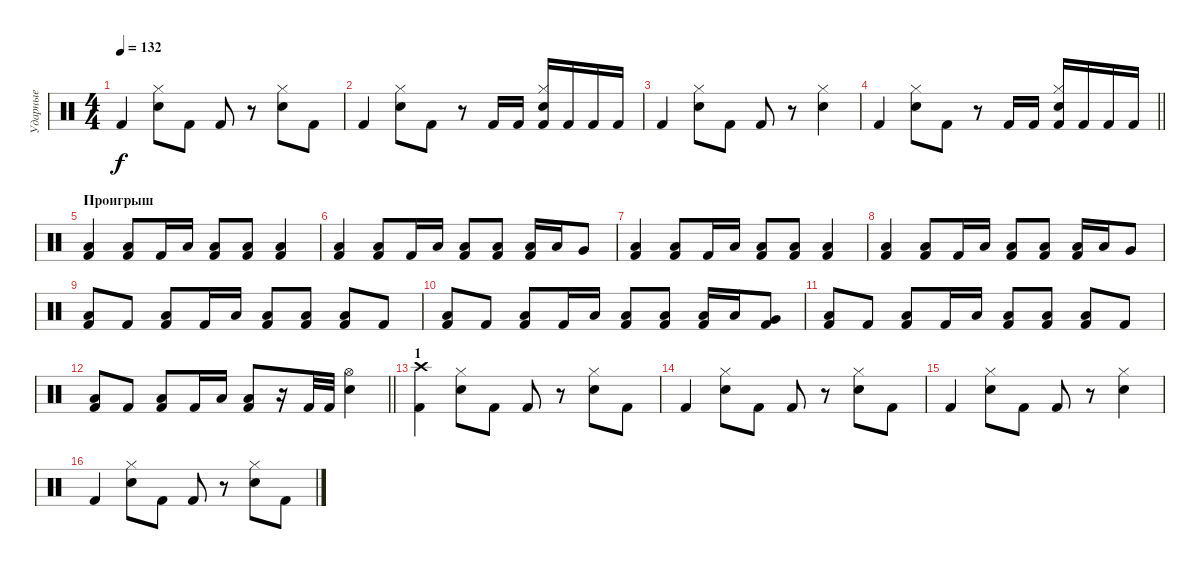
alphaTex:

\track ("Ударные" "Ударные") {instrument percussion}
\staff {score}
\articulation defaults
\ts (4 4)
\tempo 132
\clef neutral
\ks c "Kick (hit) 2".4{dy f}
("Hi-Hat (closed)" "Snare (hit) 2").8 "Kick (hit) 2".8 "Kick (hit) 2".8 r.8 ("Hi-Hat (closed)" "Snare (hit) 2").8 "Kick (hit) 2".8 |
"Kick (hit) 2".4 ("Hi-Hat (closed)" "Snare (hit) 2").8 "Kick (hit) 2".8 r.8 "Kick (hit) 2".16 "Kick (hit) 2".16 ("Hi-Hat (closed)" "Snare (hit) 2" "Kick (hit) 2").16 "Kick (hit) 2".16 "Kick (hit) 2".16 "Kick (hit) 2".16 |
"Kick (hit) 2".4 ("Hi-Hat (closed)" "Snare (hit) 2").8 "Kick (hit) 2".8 "Kick (hit) 2".8 r.8 ("Hi-Hat (closed)" "Snare (hit) 2").4 |
\barLineRight lightlight "Kick (hit) 2".4
("Hi-Hat (closed)" "Snare (hit) 2").8 "Kick (hit) 2".8 r.8 "Kick (hit) 2".16 "Kick (hit) 2".16 ("Hi-Hat (closed)" "Snare (hit) 2" "Kick (hit) 2").16 "Kick (hit) 2".16 "Kick (hit) 2".16 "Kick (hit) 2".16 |
\section ("" "Проигрыш")
("Low Tom (hit)" "Kick (hit) 2").4 ("Low Tom (hit)" "Kick (hit) 2").8 "Kick (hit) 2".16 "Low Floor Tom (hit)".16 ("Low Tom (hit)" "Kick (hit) 2").8 ("Low Tom (hit)" "Kick (hit) 2").8 ("Low Tom (hit)" "Kick (hit) 2").4 |
("Low Tom (hit)" "Kick (hit) 2").4 ("Low Tom (hit)" "Kick (hit) 2").8 "Kick (hit) 2".16 "Low Floor Tom (hit)".16 ("Low Tom (hit)" "Kick (hit) 2").8 ("Low Tom (hit)" "Kick (hit) 2").8 ("Low Tom (hit)" "Kick (hit) 2").16 "Low Tom (hit)".16 "Very Low Tom (hit)".8 |
("Low Tom (hit)" "Kick (hit) 2").4 ("Low Tom (hit)" "Kick (hit) 2").8 "Kick (hit) 2".16 "Low Floor Tom (hit)".16 ("Low Tom (hit)" "Kick (hit) 2").8 ("Low Tom (hit)" "Kick (hit) 2").8 ("Low Tom (hit)" "Kick (hit) 2").4 |
("Low Tom (hit)" "Kick (hit) 2").4 ("Low Tom (hit)" "Kick (hit) 2").8 "Kick (hit) 2".16 "Low Floor Tom (hit)".16 ("Low Tom (hit)" "Kick (hit) 2").8 ("Low Tom (hit)" "Kick (hit) 2").8 ("Low Tom (hit)" "Kick (hit) 2").16 "Low Tom (hit)".16 "Very Low Tom (hit)".8 |
("Low Tom (hit)" "Kick (hit) 2").8 "Kick (hit) 2".8 ("Low Tom (hit)" "Kick (hit) 2").8 "Kick (hit) 2".16 "Low Floor Tom (hit)".16 ("Low Tom (hit)" "Kick (hit) 2").8 ("Low Tom (hit)" "Kick (hit) 2").8 ("Low Tom (hit)" "Kick (hit) 2").8 "Kick (hit) 2".8 |
("Low Tom (hit)" "Kick (hit) 2").8 "Kick (hit) 2".8 ("Low Tom (hit)" "Kick (hit) 2").8 "Kick (hit) 2".16 "Low Floor Tom (hit)".16 ("Low Tom (hit)" "Kick (hit) 2").8 ("Low Tom (hit)" "Kick (hit) 2").8 ("Low Tom (hit)" "Kick (hit) 2").16 "Low Tom (hit)".16 ("Very Low Tom (hit)" "Kick (hit) 2").8 |
("Low Tom (hit)" "Kick (hit) 2").8 "Kick (hit) 2".8 ("Low Tom (hit)" "Kick (hit) 2").8 "Kick (hit) 2".16 "Low Floor Tom (hit)".16 ("Low Tom (hit)" "Kick (hit) 2").8 ("Low Tom (hit)" "Kick (hit) 2").8 ("Low Tom (hit)" "Kick (hit) 2").8 "Kick (hit) 2".8 |
\barLineRight lightlight
("Low Tom (hit)" "Kick (hit) 2").8 "Kick (hit) 2".8 ("Low Tom (hit)" "Kick (hit) 2").8 "Kick (hit) 2".16 "Low Floor Tom (hit)".16 ("Low Tom (hit)" "Kick (hit) 2").8 r.16 "Kick (hit) 2".32 "Kick (hit) 2".32 ("Hi-Hat (open)" "Snare (hit) 2").4 |
\section ("" "1")
("Crash high (hit)" "Kick (hit) 2").4 ("Hi-Hat (closed)" "Snare (hit) 2").8 "Kick (hit) 2".8 "Kick (hit) 2".8 r.8 ("Hi-Hat (closed)" "Snare (hit) 2").8 "Kick (hit) 2".8 |
"Kick (hit) 2".4 ("Hi-Hat (closed)" "Snare (hit) 2").8 "Kick (hit) 2".8 "Kick (hit) 2".8 r.8 ("Hi-Hat (closed)" "Snare (hit) 2").8 "Kick (hit) 2".8 |
"Kick (hit) 2".4 ("Hi-Hat (closed)" "Snare (hit) 2").8 "Kick (hit) 2".8 "Kick (hit) 2".8 r.8 ("Hi-Hat (closed)" "Snare (hit) 2").4 |
"Kick (hit) 2".4 ("Hi-Hat (closed)" "Snare (hit) 2").8 "Kick (hit) 2".8 "Kick (hit) 2".8 r.8 ("Hi-Hat (closed)" "Snare (hit) 2").8 "Kick (hit) 2".8
